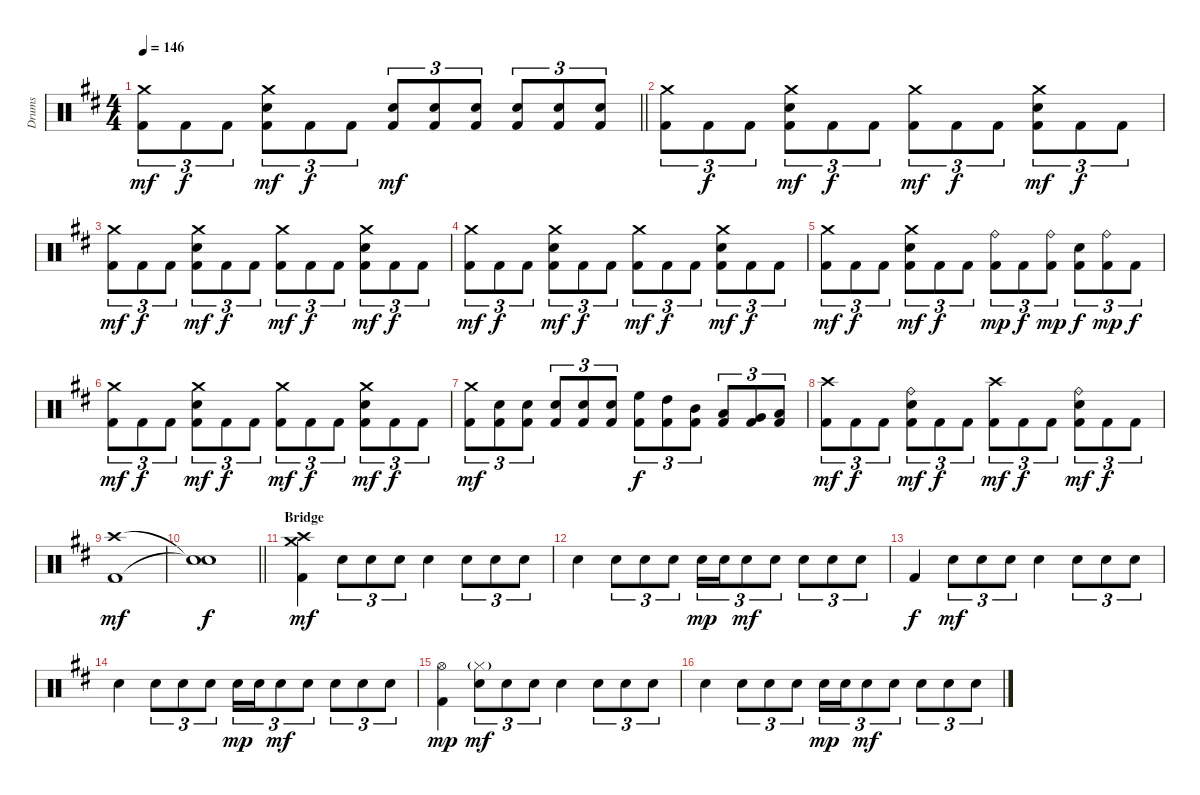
\track ("Drums" "Drums") {instrument percussion}
\staff {score}
\articulation defaults
\ts (4 4)
\tempo 146
\clef neutral
\barLineRight lightlight
\ks bminor
("Crash medium (hit)" "Kick (hit) 2").8{tu (3 2) dy mf} "Kick (hit) 2".8{tu (3 2) dy f} "Kick (hit) 2".8{tu (3 2)} ("Crash medium (hit)" "Electric Snare (hit)" "Kick (hit) 2").8{tu (3 2) dy mf} "Kick (hit) 2".8{tu (3 2) dy f} "Kick (hit) 2".8{tu (3 2)} ("Electric Snare (hit)" "Kick (hit) 2").8{tu (3 2) dy mf} ("Electric Snare (hit)" "Kick (hit) 2").8{tu (3 2)} ("Electric Snare (hit)" "Kick (hit) 2").8{tu (3 2)} ("Electric Snare (hit)" "Kick (hit) 2").8{tu (3 2)} ("Electric Snare (hit)" "Kick (hit) 2").8{tu (3 2)} ("Electric Snare (hit)" "Kick (hit) 2").8{tu (3 2)} |
\section ("" "")
("Crash medium (hit)" "Kick (hit) 2").8{tu (3 2)} "Kick (hit) 2".8{tu (3 2) dy f} "Kick (hit) 2".8{tu (3 2)} ("Crash medium (hit)" "Electric Snare (hit)" "Kick (hit) 2").8{tu (3 2) dy mf} "Kick (hit) 2".8{tu (3 2) dy f} "Kick (hit) 2".8{tu (3 2)} ("Crash medium (hit)" "Kick (hit) 2").8{tu (3 2) dy mf} "Kick (hit) 2".8{tu (3 2) dy f} "Kick (hit) 2".8{tu (3 2)} ("Crash medium (hit)" "Electric Snare (hit)" "Kick (hit) 2").8{tu (3 2) dy mf} "Kick (hit) 2".8{tu (3 2) dy f} "Kick (hit) 2".8{tu (3 2)} |
("Crash medium (hit)" "Kick (hit) 2").8{tu (3 2) dy mf} "Kick (hit) 2".8{tu (3 2) dy f} "Kick (hit) 2".8{tu (3 2)} ("Crash medium (hit)" "Electric Snare (hit)" "Kick (hit) 2").8{tu (3 2) dy mf} "Kick (hit) 2".8{tu (3 2) dy f} "Kick (hit) 2".8{tu (3 2)} ("Crash medium (hit)" "Kick (hit) 2").8{tu (3 2) dy mf} "Kick (hit) 2".8{tu (3 2) dy f} "Kick (hit) 2".8{tu (3 2)} ("Crash medium (hit)" "Electric Snare (hit)" "Kick (hit) 2").8{tu (3 2) dy mf} "Kick (hit) 2".8{tu (3 2) dy f} "Kick (hit) 2".8{tu (3 2)} |
("Crash medium (hit)" "Kick (hit) 2").8{tu (3 2) dy mf} "Kick (hit) 2".8{tu (3 2) dy f} "Kick (hit) 2".8{tu (3 2)} ("Crash medium (hit)" "Electric Snare (hit)" "Kick (hit) 2").8{tu (3 2) dy mf} "Kick (hit) 2".8{tu (3 2) dy f} "Kick (hit) 2".8{tu (3 2)} ("Crash medium (hit)" "Kick (hit) 2").8{tu (3 2) dy mf} "Kick (hit) 2".8{tu (3 2) dy f} "Kick (hit) 2".8{tu (3 2)} ("Crash medium (hit)" "Electric Snare (hit)" "Kick (hit) 2").8{tu (3 2) dy mf} "Kick (hit) 2".8{tu (3 2) dy f} "Kick (hit) 2".8{tu (3 2)} |
("Crash medium (hit)" "Kick (hit) 2").8{tu (3 2) dy mf} "Kick (hit) 2".8{tu (3 2) dy f} "Kick (hit) 2".8{tu (3 2)} ("Crash medium (hit)" "Electric Snare (hit)" "Kick (hit) 2").8{tu (3 2) dy mf} "Kick (hit) 2".8{tu (3 2) dy f} "Kick (hit) 2".8{tu (3 2)} ("Ride (bell)" "Kick (hit) 2").8{tu (3 2) dy mp} "Kick (hit) 2".8{tu (3 2) dy f} ("Ride (bell)" "Kick (hit) 2").8{tu (3 2) dy mp} ("Electric Snare (hit)" "Kick (hit) 2").8{tu (3 2) dy f} ("Ride (bell)" "Kick (hit) 2").8{tu (3 2) dy mp} "Kick (hit) 2".8{tu (3 2) dy f} |
("Crash medium (hit)" "Kick (hit) 2").8{tu (3 2) dy mf} "Kick (hit) 2".8{tu (3 2) dy f} "Kick (hit) 2".8{tu (3 2)} ("Crash medium (hit)" "Electric Snare (hit)" "Kick (hit) 2").8{tu (3 2) dy mf} "Kick (hit) 2".8{tu (3 2) dy f} "Kick (hit) 2".8{tu (3 2)} ("Crash medium (hit)" "Kick (hit) 2").8{tu (3 2) dy mf} "Kick (hit) 2".8{tu (3 2) dy f} "Kick (hit) 2".8{tu (3 2)} ("Crash medium (hit)" "Electric Snare (hit)" "Kick (hit) 2").8{tu (3 2) dy mf} "Kick (hit) 2".8{tu (3 2) dy f} "Kick (hit) 2".8{tu (3 2)} |
("Crash medium (hit)" "Kick (hit) 2").8{tu (3 2) dy mf} ("Electric Snare (hit)" "Kick (hit) 2").8{tu (3 2)} ("Electric Snare (hit)" "Kick (hit) 2").8{tu (3 2)} ("Electric Snare (hit)" "Kick (hit) 2").8{tu (3 2)} ("Electric Snare (hit)" "Kick (hit) 2").8{tu (3 2)} ("Electric Snare (hit)" "Kick (hit) 2").8{tu (3 2)} ("High Floor Tom (hit)" "Kick (hit) 2").8{tu (3 2) dy f} ("High Tom (hit)" "Kick (hit) 2").8{tu (3 2)} ("Mid Tom (hit)" "Kick (hit) 2").8{tu (3 2)} ("Low Tom (hit)" "Kick (hit) 2").8{tu (3 2)} ("Very Low Tom (hit)" "Kick (hit) 2").8{tu (3 2)} ("Low Floor Tom (hit)" "Kick (hit) 2").8{tu (3 2)} |
("Crash high (hit)" "Kick (hit) 2").8{tu (3 2) dy mf} "Kick (hit) 2".8{tu (3 2) dy f} "Kick (hit) 2".8{tu (3 2)} ("Ride (bell)" "Electric Snare (hit)" "Kick (hit) 2").8{tu (3 2) dy mf} "Kick (hit) 2".8{tu (3 2) dy f} "Kick (hit) 2".8{tu (3 2)} ("Crash high (hit)" "Kick (hit) 2").8{tu (3 2) dy mf} "Kick (hit) 2".8{tu (3 2) dy f} "Kick (hit) 2".8{tu (3 2)} ("Ride (bell)" "Electric Snare (hit)" "Kick (hit) 2").8{tu (3 2) dy mf} "Kick (hit) 2".8{tu (3 2) dy f} "Kick (hit) 2".8{tu (3 2)} |
("Crash high (hit)" "Kick (hit) 2").1{dy mf} |
\barLineRight lightlight
("Snare (hit)"{t} "Snare (hit)"{t}).1{dy f} |
\section ("" "Bridge")
("Crash high (hit)" "Crash medium (hit)" "Kick (hit) 2").4{dy mf volume 10} "Electric Snare (hit)".8{tu (3 2)} "Electric Snare (hit)".8{tu (3 2)} "Electric Snare (hit)".8{tu (3 2)} "Electric Snare (hit)".4 "Electric Snare (hit)".8{tu (3 2)} "Electric Snare (hit)".8{tu (3 2)} "Electric Snare (hit)".8{tu (3 2)} |
"Electric Snare (hit)".4 "Electric Snare (hit)".8{tu (3 2)} "Electric Snare (hit)".8{tu (3 2)} "Electric Snare (hit)".8{tu (3 2)} "Electric Snare (hit)".16{tu (3 2) dy mp} "Electric Snare (hit)".16{tu (3 2)} "Electric Snare (hit)".8{tu (3 2) dy mf} "Electric Snare (hit)".8{tu (3 2)} "Electric Snare (hit)".8{tu (3 2)} "Electric Snare (hit)".8{tu (3 2)} "Electric Snare (hit)".8{tu (3 2)} |
"Kick (hit) 2".4{dy f} "Electric Snare (hit)".8{tu (3 2) dy mf} "Electric Snare (hit)".8{tu (3 2)} "Electric Snare (hit)".8{tu (3 2)} "Electric Snare (hit)".4 "Electric Snare (hit)".8{tu (3 2)} "Electric Snare (hit)".8{tu (3 2)} "Electric Snare (hit)".8{tu (3 2)} |
"Electric Snare (hit)".4 "Electric Snare (hit)".8{tu (3 2)} "Electric Snare (hit)".8{tu (3 2)} "Electric Snare (hit)".8{tu (3 2)} "Electric Snare (hit)".16{tu (3 2) dy mp} "Electric Snare (hit)".16{tu (3 2)} "Electric Snare (hit)".8{tu (3 2) dy mf} "Electric Snare (hit)".8{tu (3 2)} "Electric Snare (hit)".8{tu (3 2)} "Electric Snare (hit)".8{tu (3 2)} "Electric Snare (hit)".8{tu (3 2)} |
("Hi-Hat (open)" "Kick (hit) 2").4{dy mp} ("Hi-Hat (closed)"{g} "Electric Snare (hit)").8{tu (3 2) dy mf} "Electric Snare (hit)".8{tu (3 2)} "Electric Snare (hit)".8{tu (3 2)} "Electric Snare (hit)".4 "Electric Snare (hit)".8{tu (3 2)} "Electric Snare (hit)".8{tu (3 2)} "Electric Snare (hit)".8{tu (3 2)} |
"Electric Snare (hit)".4 "Electric Snare (hit)".8{tu (3 2)} "Electric Snare (hit)".8{tu (3 2)} "Electric Snare (hit)".8{tu (3 2)} "Electric Snare (hit)".16{tu (3 2) dy mp} "Electric Snare (hit)".16{tu (3 2)} "Electric Snare (hit)".8{tu (3 2) dy mf} "Electric Snare (hit)".8{tu (3 2)} "Electric Snare (hit)".8{tu (3 2)} "Electric Snare (hit)".8{tu (3 2)} "Electric Snare (hit)".8{tu (3 2)}
